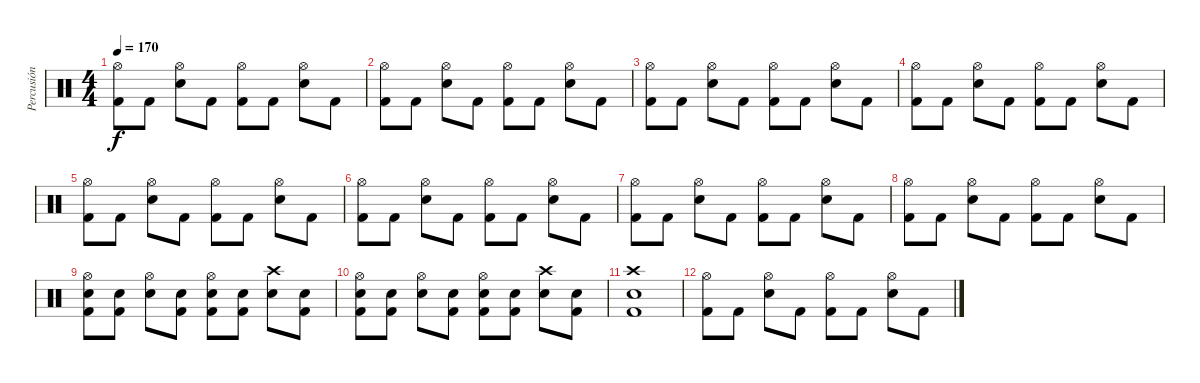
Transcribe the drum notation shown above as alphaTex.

\track ("Percusión" "Percusión") {instrument percussion}
\staff {score}
\articulation defaults
\ts (4 4)
\tempo 170
\clef neutral
\ks c
("Hi-Hat (open)" "Kick (hit) 2").8{dy f} "Kick (hit) 2".8 ("Hi-Hat (open)" "Snare (hit) 2").8 "Kick (hit) 2".8 ("Hi-Hat (open)" "Kick (hit) 2").8 "Kick (hit) 2".8 ("Hi-Hat (open)" "Snare (hit) 2").8 "Kick (hit) 2".8 |
("Hi-Hat (open)" "Kick (hit) 2").8 "Kick (hit) 2".8 ("Hi-Hat (open)" "Snare (hit) 2").8 "Kick (hit) 2".8 ("Hi-Hat (open)" "Kick (hit) 2").8 "Kick (hit) 2".8 ("Hi-Hat (open)" "Snare (hit) 2").8 "Kick (hit) 2".8 |
("Hi-Hat (open)" "Kick (hit) 2").8 "Kick (hit) 2".8 ("Hi-Hat (open)" "Snare (hit) 2").8 "Kick (hit) 2".8 ("Hi-Hat (open)" "Kick (hit) 2").8 "Kick (hit) 2".8 ("Hi-Hat (open)" "Snare (hit) 2").8 "Kick (hit) 2".8 |
("Hi-Hat (open)" "Kick (hit) 2").8 "Kick (hit) 2".8 ("Hi-Hat (open)" "Snare (hit) 2").8 "Kick (hit) 2".8 ("Hi-Hat (open)" "Kick (hit) 2").8 "Kick (hit) 2".8 ("Hi-Hat (open)" "Snare (hit) 2").8 "Kick (hit) 2".8 |
("Hi-Hat (open)" "Kick (hit) 2").8 "Kick (hit) 2".8 ("Hi-Hat (open)" "Snare (hit) 2").8 "Kick (hit) 2".8 ("Hi-Hat (open)" "Kick (hit) 2").8 "Kick (hit) 2".8 ("Hi-Hat (open)" "Snare (hit) 2").8 "Kick (hit) 2".8 |
("Hi-Hat (open)" "Kick (hit) 2").8 "Kick (hit) 2".8 ("Hi-Hat (open)" "Snare (hit) 2").8 "Kick (hit) 2".8 ("Hi-Hat (open)" "Kick (hit) 2").8 "Kick (hit) 2".8 ("Hi-Hat (open)" "Snare (hit) 2").8 "Kick (hit) 2".8 |
("Hi-Hat (open)" "Kick (hit) 2").8 "Kick (hit) 2".8 ("Hi-Hat (open)" "Snare (hit) 2").8 "Kick (hit) 2".8 ("Hi-Hat (open)" "Kick (hit) 2").8 "Kick (hit) 2".8 ("Hi-Hat (open)" "Snare (hit) 2").8 "Kick (hit) 2".8 |
("Hi-Hat (open)" "Kick (hit) 2").8 "Kick (hit) 2".8 ("Hi-Hat (open)" "Snare (hit) 2").8 "Kick (hit) 2".8 ("Hi-Hat (open)" "Kick (hit) 2").8 "Kick (hit) 2".8 ("Hi-Hat (open)" "Snare (hit) 2").8 "Kick (hit) 2".8 |
("Hi-Hat (open)" "Snare (hit) 2" "Kick (hit) 2").8 ("Snare (hit) 2" "Kick (hit) 2").8 ("Hi-Hat (open)" "Snare (hit) 2").8 ("Snare (hit) 2" "Kick (hit) 2").8 ("Hi-Hat (open)" "Snare (hit) 2" "Kick (hit) 2").8 ("Snare (hit) 2" "Kick (hit) 2").8 ("Crash high (hit)" "Snare (hit) 2").8 ("Snare (hit) 2" "Kick (hit) 2").8 |
("Hi-Hat (open)" "Snare (hit) 2" "Kick (hit) 2").8 ("Snare (hit) 2" "Kick (hit) 2").8 ("Hi-Hat (open)" "Snare (hit) 2").8 ("Snare (hit) 2" "Kick (hit) 2").8 ("Hi-Hat (open)" "Snare (hit) 2" "Kick (hit) 2").8 ("Snare (hit) 2" "Kick (hit) 2").8 ("Crash high (hit)" "Snare (hit) 2").8 ("Snare (hit) 2" "Kick (hit) 2").8 |
("Crash high (hit)" "Snare (hit) 2" "Kick (hit) 2").1 |
("Hi-Hat (open)" "Kick (hit) 2").8 "Kick (hit) 2".8 ("Hi-Hat (open)" "Snare (hit) 2").8 "Kick (hit) 2".8 ("Hi-Hat (open)" "Kick (hit) 2").8 "Kick (hit) 2".8 ("Hi-Hat (open)" "Snare (hit) 2").8 "Kick (hit) 2".8
